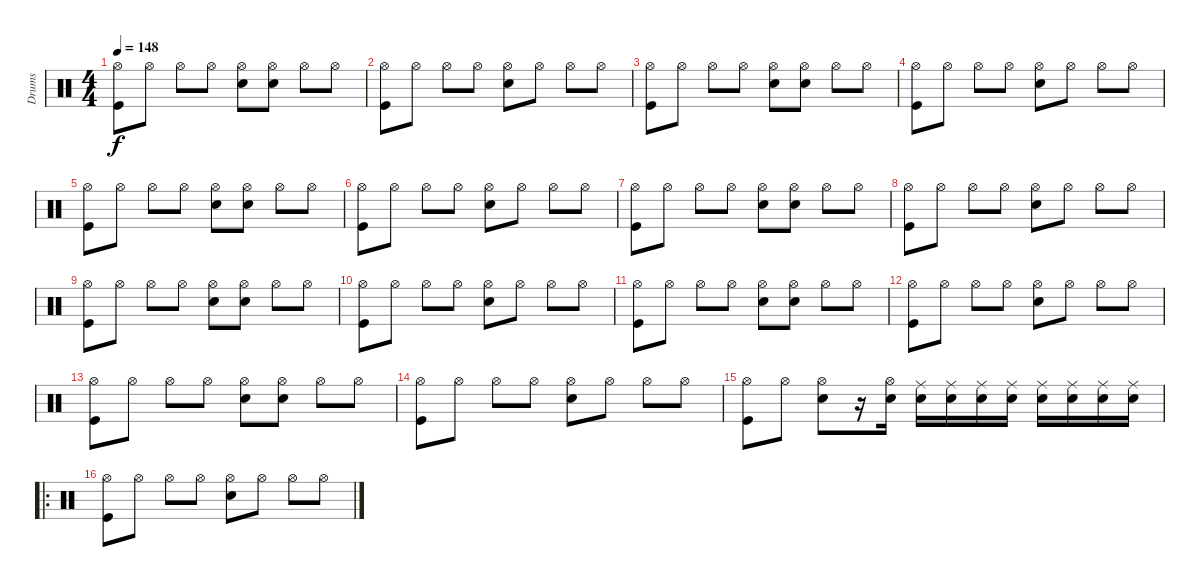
\track ("Drums" "Drums") {instrument percussion}
\staff {score}
\articulation defaults
\ts (4 4)
\tempo 148
\clef neutral
\ks c
("Kick (hit)" "Hi-Hat (open)").8{dy f} "Hi-Hat (open)".8 "Hi-Hat (open)".8 "Hi-Hat (open)".8 ("Snare (hit) 2" "Hi-Hat (open)").8 ("Hi-Hat (open)" "Snare (hit) 2").8 "Hi-Hat (open)".8 "Hi-Hat (open)".8 |
("Hi-Hat (open)" "Kick (hit)").8 "Hi-Hat (open)".8 "Hi-Hat (open)".8 "Hi-Hat (open)".8 ("Snare (hit) 2" "Hi-Hat (open)").8 "Hi-Hat (open)".8 "Hi-Hat (open)".8 "Hi-Hat (open)".8 |
("Kick (hit)" "Hi-Hat (open)").8 "Hi-Hat (open)".8 "Hi-Hat (open)".8 "Hi-Hat (open)".8 ("Snare (hit) 2" "Hi-Hat (open)").8 ("Hi-Hat (open)" "Snare (hit) 2").8 "Hi-Hat (open)".8 "Hi-Hat (open)".8 |
("Kick (hit)" "Hi-Hat (open)").8 "Hi-Hat (open)".8 "Hi-Hat (open)".8 "Hi-Hat (open)".8 ("Snare (hit) 2" "Hi-Hat (open)").8 "Hi-Hat (open)".8 "Hi-Hat (open)".8 "Hi-Hat (open)".8 |
("Kick (hit)" "Hi-Hat (open)").8 "Hi-Hat (open)".8 "Hi-Hat (open)".8 "Hi-Hat (open)".8 ("Snare (hit) 2" "Hi-Hat (open)").8 ("Hi-Hat (open)" "Snare (hit) 2").8 "Hi-Hat (open)".8 "Hi-Hat (open)".8 |
("Hi-Hat (open)" "Kick (hit)").8 "Hi-Hat (open)".8 "Hi-Hat (open)".8 "Hi-Hat (open)".8 ("Snare (hit) 2" "Hi-Hat (open)").8 "Hi-Hat (open)".8 "Hi-Hat (open)".8 "Hi-Hat (open)".8 |
("Kick (hit)" "Hi-Hat (open)").8 "Hi-Hat (open)".8 "Hi-Hat (open)".8 "Hi-Hat (open)".8 ("Snare (hit) 2" "Hi-Hat (open)").8 ("Hi-Hat (open)" "Snare (hit) 2").8 "Hi-Hat (open)".8 "Hi-Hat (open)".8 |
("Hi-Hat (open)" "Kick (hit)").8 "Hi-Hat (open)".8 "Hi-Hat (open)".8 "Hi-Hat (open)".8 ("Snare (hit) 2" "Hi-Hat (open)").8 "Hi-Hat (open)".8 "Hi-Hat (open)".8 "Hi-Hat (open)".8 |
("Kick (hit)" "Hi-Hat (open)").8 "Hi-Hat (open)".8 "Hi-Hat (open)".8 "Hi-Hat (open)".8 ("Snare (hit) 2" "Hi-Hat (open)").8 ("Hi-Hat (open)" "Snare (hit) 2").8 "Hi-Hat (open)".8 "Hi-Hat (open)".8 |
("Kick (hit)" "Hi-Hat (open)").8 "Hi-Hat (open)".8 "Hi-Hat (open)".8 "Hi-Hat (open)".8 ("Snare (hit) 2" "Hi-Hat (open)").8 "Hi-Hat (open)".8 "Hi-Hat (open)".8 "Hi-Hat (open)".8 |
("Kick (hit)" "Hi-Hat (open)").8 "Hi-Hat (open)".8 "Hi-Hat (open)".8 "Hi-Hat (open)".8 ("Snare (hit) 2" "Hi-Hat (open)").8 ("Hi-Hat (open)" "Snare (hit) 2").8 "Hi-Hat (open)".8 "Hi-Hat (open)".8 |
("Hi-Hat (open)" "Kick (hit)").8 "Hi-Hat (open)".8 "Hi-Hat (open)".8 "Hi-Hat (open)".8 ("Snare (hit) 2" "Hi-Hat (open)").8 "Hi-Hat (open)".8 "Hi-Hat (open)".8 "Hi-Hat (open)".8 |
("Kick (hit)" "Hi-Hat (open)").8 "Hi-Hat (open)".8 "Hi-Hat (open)".8 "Hi-Hat (open)".8 ("Snare (hit) 2" "Hi-Hat (open)").8 ("Hi-Hat (open)" "Snare (hit) 2").8 "Hi-Hat (open)".8 "Hi-Hat (open)".8 |
("Kick (hit)" "Hi-Hat (open)").8 "Hi-Hat (open)".8 "Hi-Hat (open)".8 "Hi-Hat (open)".8 ("Snare (hit) 2" "Hi-Hat (open)").8 "Hi-Hat (open)".8 "Hi-Hat (open)".8 "Hi-Hat (open)".8 |
("Kick (hit)" "Hi-Hat (open)").8 "Hi-Hat (open)".8 ("Snare (hit) 2" "Hi-Hat (open)").8 r.16 ("Snare (hit) 2" "Hi-Hat (open)").16 ("Snare (hit) 2" "Ride (middle)").16 ("Snare (hit) 2" "Ride (middle)").16 ("Snare (hit) 2" "Ride (middle)").16 ("Snare (hit) 2" "Ride (middle)").16 ("Snare (hit) 2" "Ride (middle)").16 ("Snare (hit) 2" "Ride (middle)").16 ("Snare (hit) 2" "Ride (middle)").16 ("Snare (hit) 2" "Ride (middle)").16 |
\ro
("Hi-Hat (open)" "Kick (hit)").8 "Hi-Hat (open)".8 "Hi-Hat (open)".8 "Hi-Hat (open)".8 ("Snare (hit) 2" "Hi-Hat (open)").8 "Hi-Hat (open)".8 "Hi-Hat (open)".8 "Hi-Hat (open)".8
